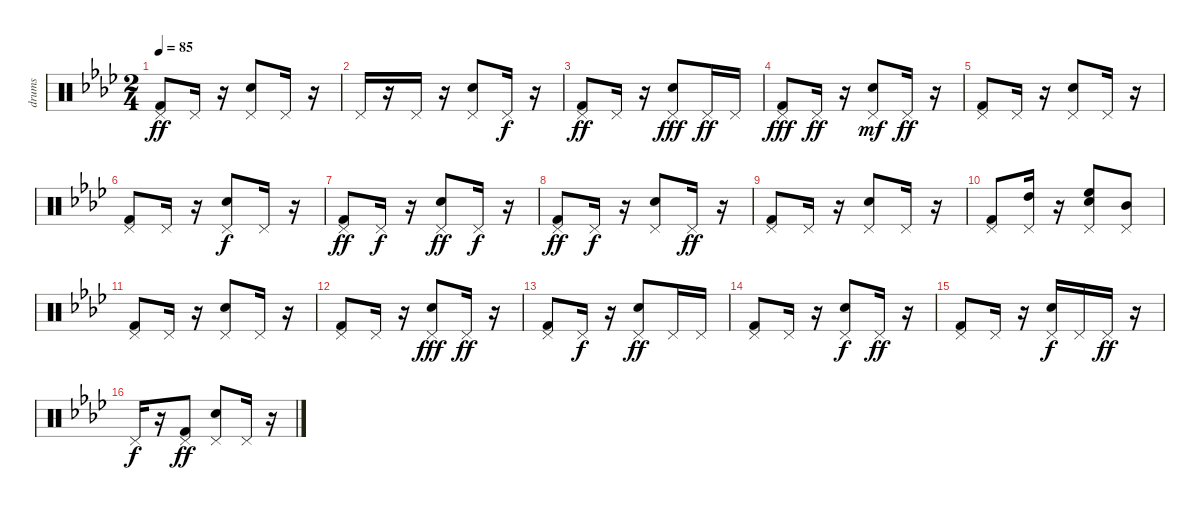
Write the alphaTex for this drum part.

\track ("drums" "drums") {instrument percussion}
\staff {score}
\articulation defaults
\ts (2 4)
\tempo 85
\clef neutral
\ks fminor
("Kick (hit) 2" "Pedal Hi-Hat (hit)").8{dy ff} "Pedal Hi-Hat (hit)".16 r.16 ("Electric Snare (hit)" "Pedal Hi-Hat (hit)").8 "Pedal Hi-Hat (hit)".16 r.16 |
"Pedal Hi-Hat (hit)".16 r.16 "Pedal Hi-Hat (hit)".16 r.16 ("Electric Snare (hit)" "Pedal Hi-Hat (hit)").8 "Pedal Hi-Hat (hit)".16{dy f} r.16 |
("Kick (hit) 2" "Pedal Hi-Hat (hit)").8{dy ff} "Pedal Hi-Hat (hit)".16 r.16 ("Electric Snare (hit)" "Pedal Hi-Hat (hit)").8{dy fff} "Pedal Hi-Hat (hit)".16{dy ff} "Pedal Hi-Hat (hit)".16 |
("Kick (hit) 2" "Pedal Hi-Hat (hit)").8{dy fff} "Pedal Hi-Hat (hit)".16{dy ff} r.16 ("Electric Snare (hit)" "Pedal Hi-Hat (hit)").8{dy mf} "Pedal Hi-Hat (hit)".16{dy ff} r.16 |
("Kick (hit) 2" "Pedal Hi-Hat (hit)").8 "Pedal Hi-Hat (hit)".16 r.16 ("Electric Snare (hit)" "Pedal Hi-Hat (hit)").8 "Pedal Hi-Hat (hit)".16 r.16 |
("Kick (hit) 2" "Pedal Hi-Hat (hit)").8 "Pedal Hi-Hat (hit)".16 r.16 ("Electric Snare (hit)" "Pedal Hi-Hat (hit)").8{dy f} "Pedal Hi-Hat (hit)".16 r.16 |
("Kick (hit) 2" "Pedal Hi-Hat (hit)").8{dy ff} "Pedal Hi-Hat (hit)".16{dy f} r.16 ("Electric Snare (hit)" "Pedal Hi-Hat (hit)").8{dy ff} "Pedal Hi-Hat (hit)".16{dy f} r.16 |
("Kick (hit) 2" "Pedal Hi-Hat (hit)").8{dy ff} "Pedal Hi-Hat (hit)".16{dy f} r.16 ("Electric Snare (hit)" "Pedal Hi-Hat (hit)").8 "Pedal Hi-Hat (hit)".16{dy ff} r.16 |
("Kick (hit) 2" "Pedal Hi-Hat (hit)").8 "Pedal Hi-Hat (hit)".16 r.16 ("Electric Snare (hit)" "Pedal Hi-Hat (hit)").8 "Pedal Hi-Hat (hit)".16 r.16 |
("Kick (hit) 2" "Pedal Hi-Hat (hit)").8 ("High Tom (hit)" "Pedal Hi-Hat (hit)").16 r.16 ("High Floor Tom (hit)" "Electric Snare (hit)" "Pedal Hi-Hat (hit)").8 ("Mid Tom (hit)" "Pedal Hi-Hat (hit)").8 |
("Pedal Hi-Hat (hit)" "Kick (hit) 2").8 "Pedal Hi-Hat (hit)".16 r.16 ("Pedal Hi-Hat (hit)" "Electric Snare (hit)").8 "Pedal Hi-Hat (hit)".16 r.16 |
("Pedal Hi-Hat (hit)" "Kick (hit) 2").8 "Pedal Hi-Hat (hit)".16 r.16 ("Pedal Hi-Hat (hit)" "Electric Snare (hit)").8{dy fff} "Pedal Hi-Hat (hit)".16{dy ff} r.16 |
("Pedal Hi-Hat (hit)" "Kick (hit) 2").8 "Pedal Hi-Hat (hit)".16{dy f} r.16 ("Pedal Hi-Hat (hit)" "Electric Snare (hit)").8{dy ff} "Pedal Hi-Hat (hit)".16 "Pedal Hi-Hat (hit)".16 |
("Pedal Hi-Hat (hit)" "Kick (hit) 2").8 "Pedal Hi-Hat (hit)".16 r.16 ("Pedal Hi-Hat (hit)" "Electric Snare (hit)").8{dy f} "Pedal Hi-Hat (hit)".16{dy ff} r.16 |
("Kick (hit) 2" "Pedal Hi-Hat (hit)").8 "Pedal Hi-Hat (hit)".16 r.16 ("Electric Snare (hit)" "Pedal Hi-Hat (hit)").16{dy f} "Pedal Hi-Hat (hit)".16 "Pedal Hi-Hat (hit)".16{dy ff} r.16 |
"Pedal Hi-Hat (hit)".16{dy f} r.16 ("Pedal Hi-Hat (hit)" "Kick (hit) 2").8{dy ff} ("Pedal Hi-Hat (hit)" "Electric Snare (hit)").8 "Pedal Hi-Hat (hit)".16 r.16
